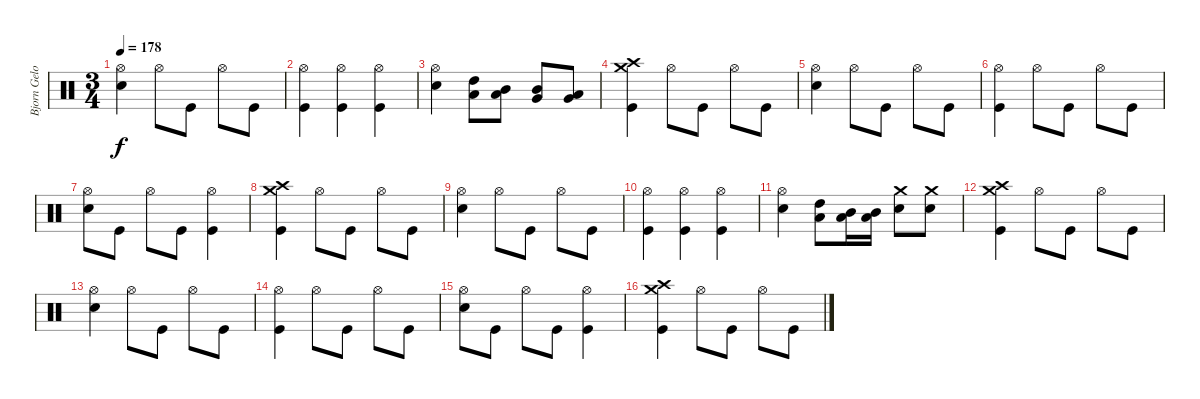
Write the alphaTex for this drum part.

\track ("Bjorn Gelotte-Drum" "Bjorn Gelo") {instrument percussion}
\staff {score}
\articulation defaults
\ts (3 4)
\tempo 178
\clef neutral
\ks c
("Electric Snare (hit)" "Hi-Hat (open)").4{dy f} "Hi-Hat (open)".8 "Kick (hit)".8 "Hi-Hat (open)".8 "Kick (hit)".8 |
("Kick (hit)" "Hi-Hat (open)").4 ("Kick (hit)" "Hi-Hat (open)").4 ("Kick (hit)" "Hi-Hat (open)").4 |
("Electric Snare (hit)" "Hi-Hat (open)").4 ("Low Tom (hit)" "High Tom (hit)").8 ("Low Tom (hit)" "Mid Tom (hit)").8 ("Very Low Tom (hit)" "Mid Tom (hit)").8 ("Very Low Tom (hit)" "Low Tom (hit)").8 |
("Kick (hit)" "Crash high (hit)" "Crash medium (hit)").4 "Hi-Hat (open)".8 "Kick (hit)".8 "Hi-Hat (open)".8 "Kick (hit)".8 |
("Electric Snare (hit)" "Hi-Hat (open)").4 "Hi-Hat (open)".8 "Kick (hit)".8 "Hi-Hat (open)".8 "Kick (hit)".8 |
("Kick (hit)" "Hi-Hat (open)").4 "Hi-Hat (open)".8 "Kick (hit)".8 "Hi-Hat (open)".8 "Kick (hit)".8 |
("Electric Snare (hit)" "Hi-Hat (open)").8 "Kick (hit)".8 "Hi-Hat (open)".8 "Kick (hit)".8 ("Kick (hit)" "Hi-Hat (open)").4 |
("Kick (hit)" "Crash high (hit)" "Crash medium (hit)").4 "Hi-Hat (open)".8 "Kick (hit)".8 "Hi-Hat (open)".8 "Kick (hit)".8 |
("Electric Snare (hit)" "Hi-Hat (open)").4 "Hi-Hat (open)".8 "Kick (hit)".8 "Hi-Hat (open)".8 "Kick (hit)".8 |
("Kick (hit)" "Hi-Hat (open)").4 ("Kick (hit)" "Hi-Hat (open)").4 ("Kick (hit)" "Hi-Hat (open)").4 |
("Electric Snare (hit)" "Hi-Hat (open)").4 ("Low Tom (hit)" "High Tom (hit)").8 ("Low Tom (hit)" "Mid Tom (hit)").16 ("Low Tom (hit)" "Mid Tom (hit)").16 ("Electric Snare (hit)" "Crash medium (hit)").8 ("Electric Snare (hit)" "Crash medium (hit)").8 |
("Kick (hit)" "Crash high (hit)" "Crash medium (hit)").4 "Hi-Hat (open)".8 "Kick (hit)".8 "Hi-Hat (open)".8 "Kick (hit)".8 |
("Electric Snare (hit)" "Hi-Hat (open)").4 "Hi-Hat (open)".8 "Kick (hit)".8 "Hi-Hat (open)".8 "Kick (hit)".8 |
("Kick (hit)" "Hi-Hat (open)").4 "Hi-Hat (open)".8 "Kick (hit)".8 "Hi-Hat (open)".8 "Kick (hit)".8 |
("Electric Snare (hit)" "Hi-Hat (open)").8 "Kick (hit)".8 "Hi-Hat (open)".8 "Kick (hit)".8 ("Kick (hit)" "Hi-Hat (open)").4 |
("Kick (hit)" "Crash high (hit)" "Crash medium (hit)").4 "Hi-Hat (open)".8 "Kick (hit)".8 "Hi-Hat (open)".8 "Kick (hit)".8
